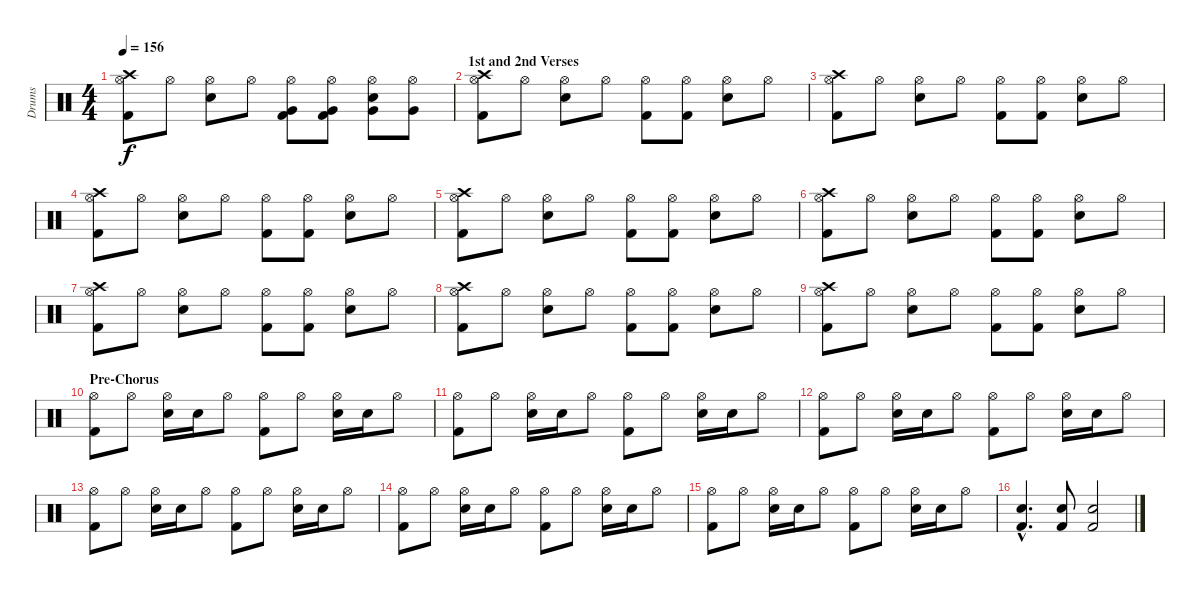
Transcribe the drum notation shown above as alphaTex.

\track ("Drums" "Drums") {instrument percussion}
\staff {score}
\articulation defaults
\ts (4 4)
\tempo 156
\clef neutral
\ks c
("Crash high (hit)" "Hi-Hat (open)" "Kick (hit) 2").8{dy f} "Hi-Hat (open)".8 ("Hi-Hat (open)" "Snare (hit) 2").8 "Hi-Hat (open)".8 ("Hi-Hat (open)" "Very Low Tom (hit)" "Kick (hit) 2").8 ("Hi-Hat (open)" "Very Low Tom (hit)" "Kick (hit) 2").8 ("Hi-Hat (open)" "Snare (hit) 2" "Very Low Tom (hit)").8 ("Hi-Hat (open)" "Very Low Tom (hit)").8 |
\section ("" "1st and 2nd Verses")
("Crash high (hit)" "Hi-Hat (open)" "Kick (hit) 2").8 "Hi-Hat (open)".8 ("Hi-Hat (open)" "Snare (hit) 2").8 "Hi-Hat (open)".8 ("Hi-Hat (open)" "Kick (hit) 2").8 ("Hi-Hat (open)" "Kick (hit) 2").8 ("Hi-Hat (open)" "Snare (hit) 2").8 "Hi-Hat (open)".8 |
("Crash high (hit)" "Hi-Hat (open)" "Kick (hit) 2").8 "Hi-Hat (open)".8 ("Hi-Hat (open)" "Snare (hit) 2").8 "Hi-Hat (open)".8 ("Hi-Hat (open)" "Kick (hit) 2").8 ("Hi-Hat (open)" "Kick (hit) 2").8 ("Hi-Hat (open)" "Snare (hit) 2").8 "Hi-Hat (open)".8 |
("Crash high (hit)" "Hi-Hat (open)" "Kick (hit) 2").8 "Hi-Hat (open)".8 ("Hi-Hat (open)" "Snare (hit) 2").8 "Hi-Hat (open)".8 ("Hi-Hat (open)" "Kick (hit) 2").8 ("Hi-Hat (open)" "Kick (hit) 2").8 ("Hi-Hat (open)" "Snare (hit) 2").8 "Hi-Hat (open)".8 |
("Crash high (hit)" "Hi-Hat (open)" "Kick (hit) 2").8 "Hi-Hat (open)".8 ("Hi-Hat (open)" "Snare (hit) 2").8 "Hi-Hat (open)".8 ("Hi-Hat (open)" "Kick (hit) 2").8 ("Hi-Hat (open)" "Kick (hit) 2").8 ("Hi-Hat (open)" "Snare (hit) 2").8 "Hi-Hat (open)".8 |
("Crash high (hit)" "Hi-Hat (open)" "Kick (hit) 2").8 "Hi-Hat (open)".8 ("Hi-Hat (open)" "Snare (hit) 2").8 "Hi-Hat (open)".8 ("Hi-Hat (open)" "Kick (hit) 2").8 ("Hi-Hat (open)" "Kick (hit) 2").8 ("Hi-Hat (open)" "Snare (hit) 2").8 "Hi-Hat (open)".8 |
("Crash high (hit)" "Hi-Hat (open)" "Kick (hit) 2").8 "Hi-Hat (open)".8 ("Hi-Hat (open)" "Snare (hit) 2").8 "Hi-Hat (open)".8 ("Hi-Hat (open)" "Kick (hit) 2").8 ("Hi-Hat (open)" "Kick (hit) 2").8 ("Hi-Hat (open)" "Snare (hit) 2").8 "Hi-Hat (open)".8 |
("Crash high (hit)" "Hi-Hat (open)" "Kick (hit) 2").8 "Hi-Hat (open)".8 ("Hi-Hat (open)" "Snare (hit) 2").8 "Hi-Hat (open)".8 ("Hi-Hat (open)" "Kick (hit) 2").8 ("Hi-Hat (open)" "Kick (hit) 2").8 ("Hi-Hat (open)" "Snare (hit) 2").8 "Hi-Hat (open)".8 |
("Crash high (hit)" "Hi-Hat (open)" "Kick (hit) 2").8 "Hi-Hat (open)".8 ("Hi-Hat (open)" "Snare (hit) 2").8 "Hi-Hat (open)".8 ("Hi-Hat (open)" "Kick (hit) 2").8 ("Hi-Hat (open)" "Kick (hit) 2").8 ("Hi-Hat (open)" "Snare (hit) 2").8 "Hi-Hat (open)".8 |
\section ("" "Pre-Chorus")
("Hi-Hat (open)" "Kick (hit) 2").8 "Hi-Hat (open)".8 ("Hi-Hat (open)" "Snare (hit) 2").16 "Snare (hit) 2".16 "Hi-Hat (open)".8 ("Hi-Hat (open)" "Kick (hit) 2").8 "Hi-Hat (open)".8 ("Hi-Hat (open)" "Snare (hit) 2").16 "Snare (hit) 2".16 "Hi-Hat (open)".8 |
("Hi-Hat (open)" "Kick (hit) 2").8 "Hi-Hat (open)".8 ("Hi-Hat (open)" "Snare (hit) 2").16 "Snare (hit) 2".16 "Hi-Hat (open)".8 ("Hi-Hat (open)" "Kick (hit) 2").8 "Hi-Hat (open)".8 ("Hi-Hat (open)" "Snare (hit) 2").16 "Snare (hit) 2".16 "Hi-Hat (open)".8 |
("Hi-Hat (open)" "Kick (hit) 2").8 "Hi-Hat (open)".8 ("Hi-Hat (open)" "Snare (hit) 2").16 "Snare (hit) 2".16 "Hi-Hat (open)".8 ("Hi-Hat (open)" "Kick (hit) 2").8 "Hi-Hat (open)".8 ("Hi-Hat (open)" "Snare (hit) 2").16 "Snare (hit) 2".16 "Hi-Hat (open)".8 |
("Hi-Hat (open)" "Kick (hit) 2").8 "Hi-Hat (open)".8 ("Hi-Hat (open)" "Snare (hit) 2").16 "Snare (hit) 2".16 "Hi-Hat (open)".8 ("Hi-Hat (open)" "Kick (hit) 2").8 "Hi-Hat (open)".8 ("Hi-Hat (open)" "Snare (hit) 2").16 "Snare (hit) 2".16 "Hi-Hat (open)".8 |
("Hi-Hat (open)" "Kick (hit) 2").8 "Hi-Hat (open)".8 ("Hi-Hat (open)" "Snare (hit) 2").16 "Snare (hit) 2".16 "Hi-Hat (open)".8 ("Hi-Hat (open)" "Kick (hit) 2").8 "Hi-Hat (open)".8 ("Hi-Hat (open)" "Snare (hit) 2").16 "Snare (hit) 2".16 "Hi-Hat (open)".8 |
("Hi-Hat (open)" "Kick (hit) 2").8 "Hi-Hat (open)".8 ("Hi-Hat (open)" "Snare (hit) 2").16 "Snare (hit) 2".16 "Hi-Hat (open)".8 ("Hi-Hat (open)" "Kick (hit) 2").8 "Hi-Hat (open)".8 ("Hi-Hat (open)" "Snare (hit) 2").16 "Snare (hit) 2".16 "Hi-Hat (open)".8 |
("Snare (hit) 2"{hac} "Kick (hit) 2"{hac}).4{d} ("Snare (hit) 2" "Kick (hit) 2").8 ("Snare (hit) 2" "Kick (hit) 2").2
